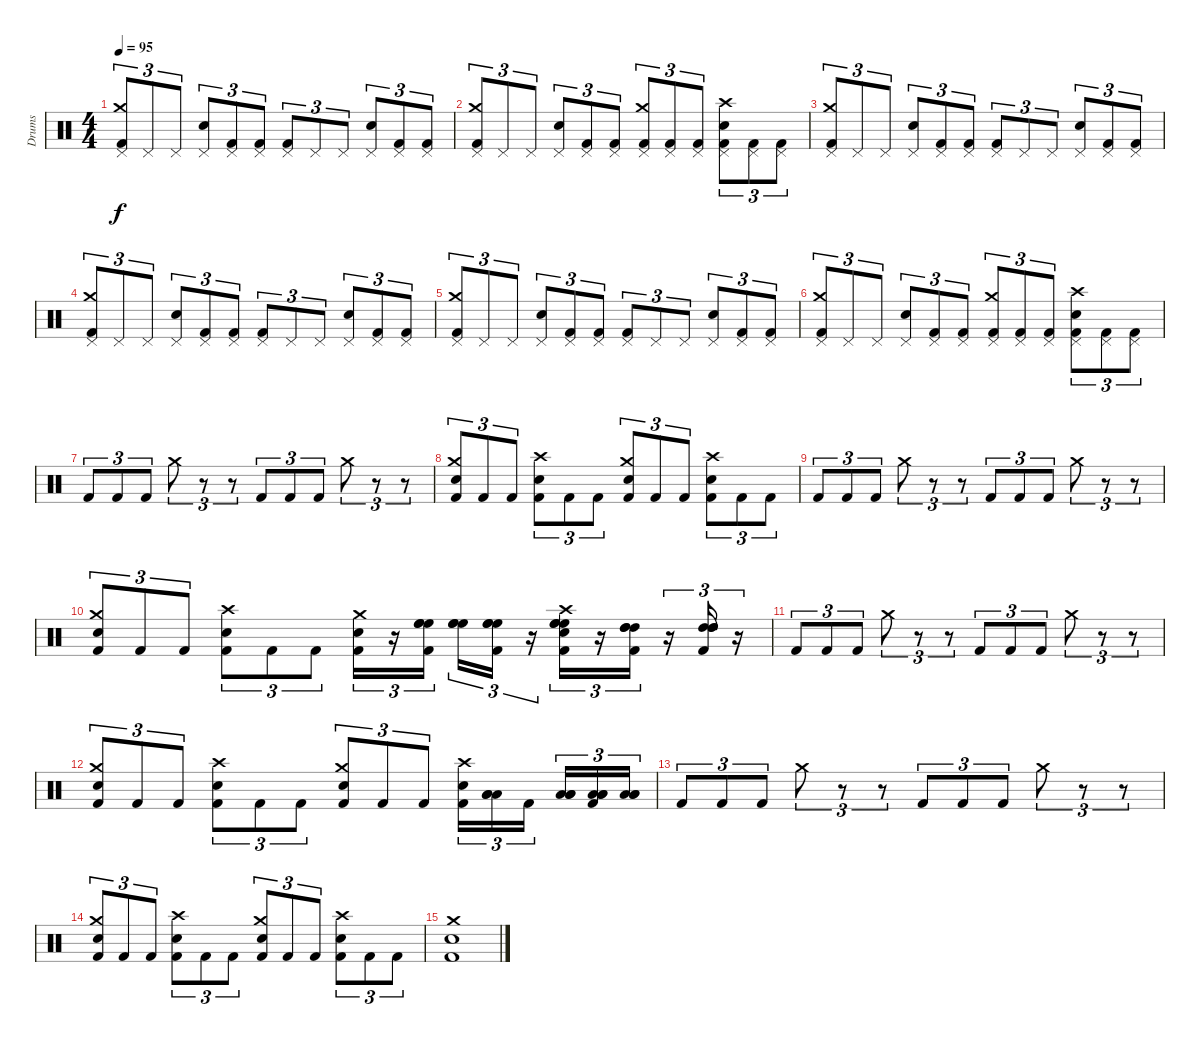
\track ("Drums" "Drums") {instrument percussion}
\staff {score}
\articulation defaults
\ts (4 4)
\tempo 95
\clef neutral
\ks c
("Kick (hit) 2" "Crash medium (hit)" "Pedal Hi-Hat (hit)").8{tu (3 2) dy f} "Pedal Hi-Hat (hit)".8{tu (3 2)} "Pedal Hi-Hat (hit)".8{tu (3 2)} ("Snare (hit) 2" "Pedal Hi-Hat (hit)").8{tu (3 2)} ("Kick (hit) 2" "Pedal Hi-Hat (hit)").8{tu (3 2)} ("Kick (hit) 2" "Pedal Hi-Hat (hit)").8{tu (3 2)} ("Kick (hit) 2" "Pedal Hi-Hat (hit)").8{tu (3 2)} "Pedal Hi-Hat (hit)".8{tu (3 2)} "Pedal Hi-Hat (hit)".8{tu (3 2)} ("Snare (hit) 2" "Pedal Hi-Hat (hit)").8{tu (3 2)} ("Kick (hit) 2" "Pedal Hi-Hat (hit)").8{tu (3 2)} ("Kick (hit) 2" "Pedal Hi-Hat (hit)").8{tu (3 2)} |
("Kick (hit) 2" "Crash medium (hit)" "Pedal Hi-Hat (hit)").8{tu (3 2)} "Pedal Hi-Hat (hit)".8{tu (3 2)} "Pedal Hi-Hat (hit)".8{tu (3 2)} ("Snare (hit) 2" "Pedal Hi-Hat (hit)").8{tu (3 2)} ("Kick (hit) 2" "Pedal Hi-Hat (hit)").8{tu (3 2)} ("Kick (hit) 2" "Pedal Hi-Hat (hit)").8{tu (3 2)} ("Kick (hit) 2" "Crash medium (hit)" "Pedal Hi-Hat (hit)").8{tu (3 2)} ("Kick (hit) 2" "Pedal Hi-Hat (hit)").8{tu (3 2)} ("Kick (hit) 2" "Pedal Hi-Hat (hit)").8{tu (3 2)} ("Kick (hit) 2" "Crash high (hit)" "Snare (hit) 2" "Pedal Hi-Hat (hit)").8{tu (3 2)} ("Kick (hit) 2" "Pedal Hi-Hat (hit)").8{tu (3 2)} ("Kick (hit) 2" "Pedal Hi-Hat (hit)").8{tu (3 2)} |
("Kick (hit) 2" "Crash medium (hit)" "Pedal Hi-Hat (hit)").8{tu (3 2)} "Pedal Hi-Hat (hit)".8{tu (3 2)} "Pedal Hi-Hat (hit)".8{tu (3 2)} ("Snare (hit) 2" "Pedal Hi-Hat (hit)").8{tu (3 2)} ("Kick (hit) 2" "Pedal Hi-Hat (hit)").8{tu (3 2)} ("Kick (hit) 2" "Pedal Hi-Hat (hit)").8{tu (3 2)} ("Kick (hit) 2" "Pedal Hi-Hat (hit)").8{tu (3 2)} "Pedal Hi-Hat (hit)".8{tu (3 2)} "Pedal Hi-Hat (hit)".8{tu (3 2)} ("Snare (hit) 2" "Pedal Hi-Hat (hit)").8{tu (3 2)} ("Kick (hit) 2" "Pedal Hi-Hat (hit)").8{tu (3 2)} ("Kick (hit) 2" "Pedal Hi-Hat (hit)").8{tu (3 2)} |
("Kick (hit) 2" "Crash medium (hit)" "Pedal Hi-Hat (hit)").8{tu (3 2)} "Pedal Hi-Hat (hit)".8{tu (3 2)} "Pedal Hi-Hat (hit)".8{tu (3 2)} ("Snare (hit) 2" "Pedal Hi-Hat (hit)").8{tu (3 2)} ("Kick (hit) 2" "Pedal Hi-Hat (hit)").8{tu (3 2)} ("Kick (hit) 2" "Pedal Hi-Hat (hit)").8{tu (3 2)} ("Kick (hit) 2" "Pedal Hi-Hat (hit)").8{tu (3 2)} "Pedal Hi-Hat (hit)".8{tu (3 2)} "Pedal Hi-Hat (hit)".8{tu (3 2)} ("Snare (hit) 2" "Pedal Hi-Hat (hit)").8{tu (3 2)} ("Kick (hit) 2" "Pedal Hi-Hat (hit)").8{tu (3 2)} ("Kick (hit) 2" "Pedal Hi-Hat (hit)").8{tu (3 2)} |
("Kick (hit) 2" "Crash medium (hit)" "Pedal Hi-Hat (hit)").8{tu (3 2)} "Pedal Hi-Hat (hit)".8{tu (3 2)} "Pedal Hi-Hat (hit)".8{tu (3 2)} ("Snare (hit) 2" "Pedal Hi-Hat (hit)").8{tu (3 2)} ("Kick (hit) 2" "Pedal Hi-Hat (hit)").8{tu (3 2)} ("Kick (hit) 2" "Pedal Hi-Hat (hit)").8{tu (3 2)} ("Kick (hit) 2" "Pedal Hi-Hat (hit)").8{tu (3 2)} "Pedal Hi-Hat (hit)".8{tu (3 2)} "Pedal Hi-Hat (hit)".8{tu (3 2)} ("Snare (hit) 2" "Pedal Hi-Hat (hit)").8{tu (3 2)} ("Kick (hit) 2" "Pedal Hi-Hat (hit)").8{tu (3 2)} ("Kick (hit) 2" "Pedal Hi-Hat (hit)").8{tu (3 2)} |
("Kick (hit) 2" "Crash medium (hit)" "Pedal Hi-Hat (hit)").8{tu (3 2)} "Pedal Hi-Hat (hit)".8{tu (3 2)} "Pedal Hi-Hat (hit)".8{tu (3 2)} ("Snare (hit) 2" "Pedal Hi-Hat (hit)").8{tu (3 2)} ("Kick (hit) 2" "Pedal Hi-Hat (hit)").8{tu (3 2)} ("Kick (hit) 2" "Pedal Hi-Hat (hit)").8{tu (3 2)} ("Kick (hit) 2" "Crash medium (hit)" "Pedal Hi-Hat (hit)").8{tu (3 2)} ("Kick (hit) 2" "Pedal Hi-Hat (hit)").8{tu (3 2)} ("Kick (hit) 2" "Pedal Hi-Hat (hit)").8{tu (3 2)} ("Kick (hit) 2" "Crash high (hit)" "Snare (hit) 2" "Pedal Hi-Hat (hit)").8{tu (3 2)} ("Kick (hit) 2" "Pedal Hi-Hat (hit)").8{tu (3 2)} ("Kick (hit) 2" "Pedal Hi-Hat (hit)").8{tu (3 2)} |
"Kick (hit) 2".8{tu (3 2)} "Kick (hit) 2".8{tu (3 2)} "Kick (hit) 2".8{tu (3 2)} "Crash medium (hit)".8{tu (3 2)} r.8{tu (3 2)} r.8{tu (3 2)} "Kick (hit) 2".8{tu (3 2)} "Kick (hit) 2".8{tu (3 2)} "Kick (hit) 2".8{tu (3 2)} "Crash medium (hit)".8{tu (3 2)} r.8{tu (3 2)} r.8{tu (3 2)} |
("Kick (hit) 2" "Crash medium (hit)" "Snare (hit) 2").8{tu (3 2)} "Kick (hit) 2".8{tu (3 2)} "Kick (hit) 2".8{tu (3 2)} ("Kick (hit) 2" "Crash high (hit)" "Snare (hit) 2").8{tu (3 2)} "Kick (hit) 2".8{tu (3 2)} "Kick (hit) 2".8{tu (3 2)} ("Kick (hit) 2" "Crash medium (hit)" "Snare (hit) 2").8{tu (3 2)} "Kick (hit) 2".8{tu (3 2)} "Kick (hit) 2".8{tu (3 2)} ("Kick (hit) 2" "Crash high (hit)" "Snare (hit) 2").8{tu (3 2)} "Kick (hit) 2".8{tu (3 2)} "Kick (hit) 2".8{tu (3 2)} |
"Kick (hit) 2".8{tu (3 2)} "Kick (hit) 2".8{tu (3 2)} "Kick (hit) 2".8{tu (3 2)} "Crash medium (hit)".8{tu (3 2)} r.8{tu (3 2)} r.8{tu (3 2)} "Kick (hit) 2".8{tu (3 2)} "Kick (hit) 2".8{tu (3 2)} "Kick (hit) 2".8{tu (3 2)} "Crash medium (hit)".8{tu (3 2)} r.8{tu (3 2)} r.8{tu (3 2)} |
("Kick (hit) 2" "Crash medium (hit)" "Snare (hit) 2").8{tu (3 2)} "Kick (hit) 2".8{tu (3 2)} "Kick (hit) 2".8{tu (3 2)} ("Kick (hit) 2" "Crash high (hit)" "Snare (hit) 2").8{tu (3 2)} "Kick (hit) 2".8{tu (3 2)} "Kick (hit) 2".8{tu (3 2)} ("Kick (hit) 2" "Crash medium (hit)" "Snare (hit) 2").16{tu (3 2)} r.16{tu (3 2)} ("Kick (hit) 2" "High Floor Tom (hit)" "High Floor Tom (hit)" "High Floor Tom (hit)").16{tu (3 2)} ("High Floor Tom (hit)" "High Floor Tom (hit)" "High Floor Tom (hit)").16{tu (3 2)} ("Kick (hit) 2" "High Floor Tom (hit)" "High Floor Tom (hit)" "High Floor Tom (hit)").16{tu (3 2)} r.16{tu (3 2)} ("Kick (hit) 2" "Crash high (hit)" "Snare (hit) 2" "High Floor Tom (hit)" "High Floor Tom (hit)" "High Floor Tom (hit)").16{tu (3 2)} r.16{tu (3 2)} ("Kick (hit) 2" "High Tom (hit)" "High Tom (hit)" "High Tom (hit)").16{tu (3 2)} r.16{tu (3 2)} ("Kick (hit) 2" "High Tom (hit)" "High Tom (hit)" "High Tom (hit)").16{tu (3 2)} r.16{tu (3 2)} |
"Kick (hit) 2".8{tu (3 2)} "Kick (hit) 2".8{tu (3 2)} "Kick (hit) 2".8{tu (3 2)} "Crash medium (hit)".8{tu (3 2)} r.8{tu (3 2)} r.8{tu (3 2)} "Kick (hit) 2".8{tu (3 2)} "Kick (hit) 2".8{tu (3 2)} "Kick (hit) 2".8{tu (3 2)} "Crash medium (hit)".8{tu (3 2)} r.8{tu (3 2)} r.8{tu (3 2)} |
("Kick (hit) 2" "Crash medium (hit)" "Snare (hit) 2").8{tu (3 2)} "Kick (hit) 2".8{tu (3 2)} "Kick (hit) 2".8{tu (3 2)} ("Kick (hit) 2" "Crash high (hit)" "Snare (hit) 2").8{tu (3 2)} "Kick (hit) 2".8{tu (3 2)} "Kick (hit) 2".8{tu (3 2)} ("Kick (hit) 2" "Crash medium (hit)" "Snare (hit) 2").8{tu (3 2)} "Kick (hit) 2".8{tu (3 2)} "Kick (hit) 2".8{tu (3 2)} ("Kick (hit) 2" "Crash high (hit)" "Snare (hit) 2").16{tu (3 2)} ("Low Tom (hit)" "Low Tom (hit)" "Low Tom (hit)").16{tu (3 2)} "Kick (hit) 2".16{tu (3 2)} ("Low Tom (hit)" "Low Tom (hit)" "Low Tom (hit)").16{tu (3 2)} ("Kick (hit) 2" "Low Tom (hit)" "Low Tom (hit)" "Low Tom (hit)").16{tu (3 2)} ("Low Floor Tom (hit)" "Low Floor Tom (hit)" "Low Floor Tom (hit)").16{tu (3 2)} |
"Kick (hit) 2".8{tu (3 2)} "Kick (hit) 2".8{tu (3 2)} "Kick (hit) 2".8{tu (3 2)} "Crash medium (hit)".8{tu (3 2)} r.8{tu (3 2)} r.8{tu (3 2)} "Kick (hit) 2".8{tu (3 2)} "Kick (hit) 2".8{tu (3 2)} "Kick (hit) 2".8{tu (3 2)} "Crash medium (hit)".8{tu (3 2)} r.8{tu (3 2)} r.8{tu (3 2)} |
("Kick (hit) 2" "Crash medium (hit)" "Snare (hit) 2").8{tu (3 2)} "Kick (hit) 2".8{tu (3 2)} "Kick (hit) 2".8{tu (3 2)} ("Kick (hit) 2" "Crash high (hit)" "Snare (hit) 2").8{tu (3 2)} "Kick (hit) 2".8{tu (3 2)} "Kick (hit) 2".8{tu (3 2)} ("Kick (hit) 2" "Crash medium (hit)" "Snare (hit) 2").8{tu (3 2)} "Kick (hit) 2".8{tu (3 2)} "Kick (hit) 2".8{tu (3 2)} ("Kick (hit) 2" "Crash high (hit)" "Snare (hit) 2").8{tu (3 2)} "Kick (hit) 2".8{tu (3 2)} "Kick (hit) 2".8{tu (3 2)} |
("Kick (hit) 2" "Crash medium (hit)" "Snare (hit) 2").1
